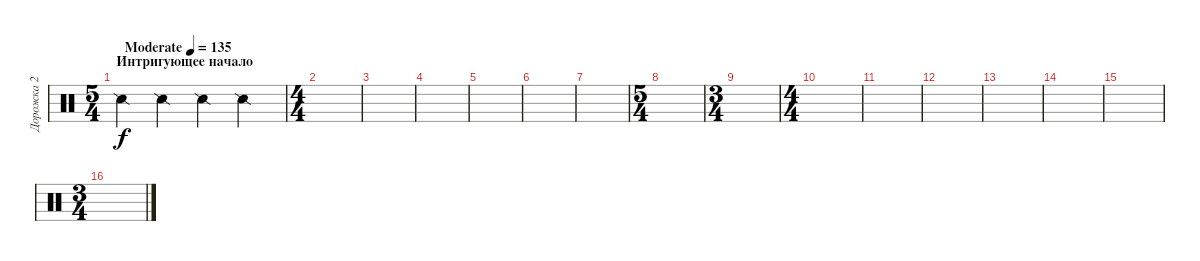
\track ("Дорожка 2" "Дорожка 2") {instrument percussion}
\staff {score}
\articulation defaults
\ts (5 4)
\section ("" "Интригующее начало")
\tempo (135 "Moderate")
\tempo 125
\tempo (135 "Moderate")
\clef neutral
\ks c "Snare (side stick) 2".4{dy f} "Snare (side stick) 2".4 "Snare (side stick) 2".4 "Snare (side stick) 2".4
|
\ts (4 4)
|
|
|
|
|
|
\ts (5 4)
|
\ts (3 4)
|
\ts (4 4)
|
|
|
|
|
|
\ts (3 4)
